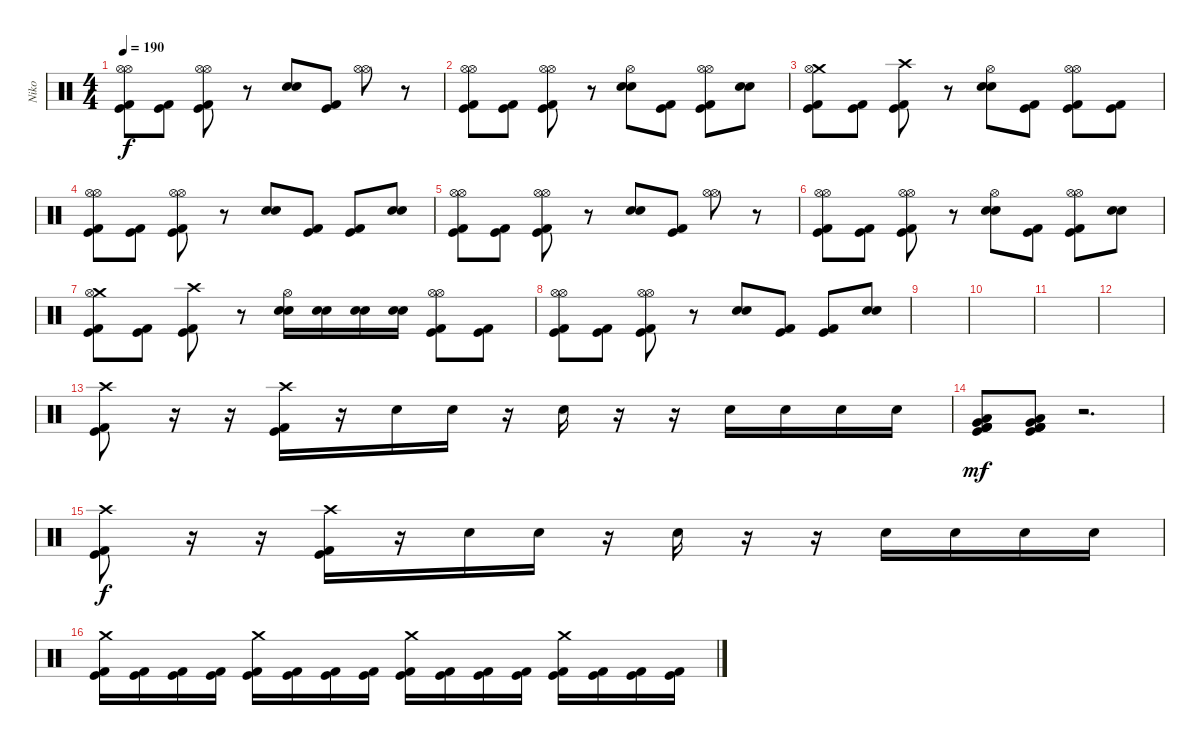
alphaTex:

\track ("Niko" "Niko") {instrument percussion}
\staff {score}
\articulation defaults
\ts (4 4)
\tempo 190
\clef neutral
\ks c
("Hi-Hat (open)" "Hi-Hat (open)" "Kick (hit)" "Kick (hit) 2").8{dy f} ("Kick (hit) 2" "Kick (hit)").8 ("Hi-Hat (open)" "Hi-Hat (open)" "Kick (hit) 2" "Kick (hit)").8 r.8 ("Electric Snare (hit)" "Electric Snare (hit)").8 ("Kick (hit) 2" "Kick (hit)").8 ("Hi-Hat (open)" "Hi-Hat (open)").8 r.8 |
("Hi-Hat (open)" "Hi-Hat (open)" "Kick (hit)" "Kick (hit) 2").8 ("Kick (hit) 2" "Kick (hit)").8 ("Hi-Hat (open)" "Hi-Hat (open)" "Kick (hit) 2" "Kick (hit)").8 r.8 ("Hi-Hat (open)" "Electric Snare (hit)" "Electric Snare (hit)").8 ("Kick (hit) 2" "Kick (hit)").8 ("Hi-Hat (open)" "Hi-Hat (open)" "Kick (hit) 2" "Kick (hit)").8 ("Electric Snare (hit)" "Electric Snare (hit)").8 |
("Crash medium (hit)" "Hi-Hat (open)" "Kick (hit)" "Kick (hit) 2").8 ("Kick (hit) 2" "Kick (hit)").8 ("Crash high (hit)" "Kick (hit) 2" "Kick (hit)").8 r.8 ("Hi-Hat (open)" "Electric Snare (hit)" "Electric Snare (hit)").8 ("Kick (hit) 2" "Kick (hit)").8 ("Hi-Hat (open)" "Hi-Hat (open)" "Kick (hit) 2" "Kick (hit)").8 ("Kick (hit) 2" "Kick (hit)").8 |
("Hi-Hat (open)" "Hi-Hat (open)" "Kick (hit)" "Kick (hit) 2").8 ("Kick (hit) 2" "Kick (hit)").8 ("Hi-Hat (open)" "Hi-Hat (open)" "Kick (hit) 2" "Kick (hit)").8 r.8 ("Electric Snare (hit)" "Electric Snare (hit)").8 ("Kick (hit) 2" "Kick (hit)").8 ("Kick (hit) 2" "Kick (hit)").8 ("Electric Snare (hit)" "Electric Snare (hit)").8 |
("Hi-Hat (open)" "Hi-Hat (open)" "Kick (hit)" "Kick (hit) 2").8 ("Kick (hit) 2" "Kick (hit)").8 ("Hi-Hat (open)" "Hi-Hat (open)" "Kick (hit) 2" "Kick (hit)").8 r.8 ("Electric Snare (hit)" "Electric Snare (hit)").8 ("Kick (hit) 2" "Kick (hit)").8 ("Hi-Hat (open)" "Hi-Hat (open)").8 r.8 |
("Hi-Hat (open)" "Hi-Hat (open)" "Kick (hit)" "Kick (hit) 2").8 ("Kick (hit) 2" "Kick (hit)").8 ("Hi-Hat (open)" "Hi-Hat (open)" "Kick (hit) 2" "Kick (hit)").8 r.8 ("Hi-Hat (open)" "Electric Snare (hit)" "Electric Snare (hit)").8 ("Kick (hit) 2" "Kick (hit)").8 ("Hi-Hat (open)" "Hi-Hat (open)" "Kick (hit) 2" "Kick (hit)").8 ("Electric Snare (hit)" "Electric Snare (hit)").8 |
("Crash medium (hit)" "Hi-Hat (open)" "Kick (hit)" "Kick (hit) 2").8 ("Kick (hit) 2" "Kick (hit)").8 ("Crash high (hit)" "Kick (hit) 2" "Kick (hit)").8 r.8 ("Hi-Hat (open)" "Electric Snare (hit)" "Electric Snare (hit)").16 ("Electric Snare (hit)" "Electric Snare (hit)").16 ("Electric Snare (hit)" "Electric Snare (hit)").16 ("Electric Snare (hit)" "Electric Snare (hit)").16 ("Hi-Hat (open)" "Hi-Hat (open)" "Kick (hit) 2" "Kick (hit)").8 ("Kick (hit) 2" "Kick (hit)").8 |
("Hi-Hat (open)" "Hi-Hat (open)" "Kick (hit)" "Kick (hit) 2").8 ("Kick (hit) 2" "Kick (hit)").8 ("Hi-Hat (open)" "Hi-Hat (open)" "Kick (hit) 2" "Kick (hit)").8 r.8 ("Electric Snare (hit)" "Electric Snare (hit)").8 ("Kick (hit) 2" "Kick (hit)").8 ("Kick (hit) 2" "Kick (hit)").8 ("Electric Snare (hit)" "Electric Snare (hit)").8 |
|
|
|
|
("Crash high (hit)" "Kick (hit) 2" "Kick (hit)").8 r.16 r.16 ("Crash high (hit)" "Kick (hit) 2" "Kick (hit)").16 r.16 "Electric Snare (hit)".16 "Electric Snare (hit)".16 r.16 "Electric Snare (hit)".16 r.16 r.16 "Electric Snare (hit)".16 "Electric Snare (hit)".16 "Electric Snare (hit)".16 "Electric Snare (hit)".16 |
("Kick (hit) 2" "Kick (hit) 2" "Very Low Tom (hit)" "Low Floor Tom (hit)" "Kick (hit) 2" "Kick (hit)").8{dy mf} ("Kick (hit) 2" "Kick (hit) 2" "Very Low Tom (hit)" "Low Floor Tom (hit)" "Kick (hit) 2" "Kick (hit)").8 r.2{d} |
("Crash high (hit)" "Kick (hit) 2" "Kick (hit)").8{dy f} r.16 r.16 ("Crash high (hit)" "Kick (hit) 2" "Kick (hit)").16 r.16 "Electric Snare (hit)".16 "Electric Snare (hit)".16 r.16 "Electric Snare (hit)".16 r.16 r.16 "Electric Snare (hit)".16 "Electric Snare (hit)".16 "Electric Snare (hit)".16 "Electric Snare (hit)".16 |
("Crash medium (hit)" "Kick (hit) 2" "Kick (hit)").16 ("Kick (hit)" "Kick (hit) 2").16 ("Kick (hit) 2" "Kick (hit)").16 ("Kick (hit)" "Kick (hit) 2").16 ("Crash medium (hit)" "Kick (hit)" "Kick (hit) 2").16 ("Kick (hit)" "Kick (hit) 2").16 ("Kick (hit)" "Kick (hit) 2").16 ("Kick (hit)" "Kick (hit) 2").16 ("Crash medium (hit)" "Kick (hit)" "Kick (hit) 2").16 ("Kick (hit)" "Kick (hit) 2").16 ("Kick (hit)" "Kick (hit) 2").16 ("Kick (hit)" "Kick (hit) 2").16 ("Crash medium (hit)" "Kick (hit)" "Kick (hit) 2").16 ("Kick (hit)" "Kick (hit) 2").16 ("Kick (hit)" "Kick (hit) 2").16 ("Kick (hit)" "Kick (hit) 2").16
